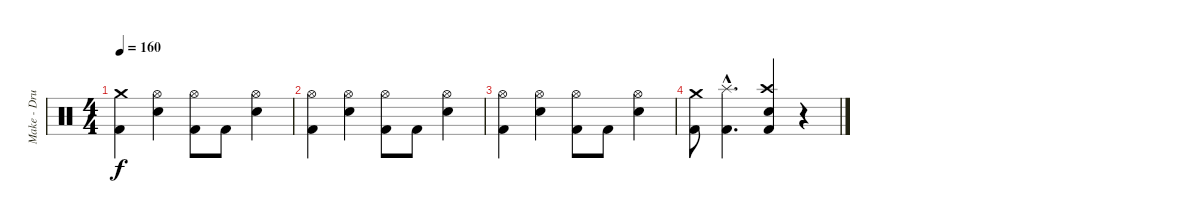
\track ("Make - Drums" "Make - Dru") {instrument percussion}
\staff {score}
\articulation defaults
\ts (4 4)
\tempo 160
\clef neutral
\ks c
("Kick (hit) 2" "Crash medium (hit)").4{dy f} ("Snare (hit) 2" "Hi-Hat (open)").4 ("Kick (hit) 2" "Hi-Hat (open)").8 "Kick (hit) 2".8 ("Snare (hit) 2" "Hi-Hat (open)").4 |
("Kick (hit) 2" "Hi-Hat (open)").4 ("Snare (hit) 2" "Hi-Hat (open)").4 ("Kick (hit) 2" "Hi-Hat (open)").8 "Kick (hit) 2".8 ("Snare (hit) 2" "Hi-Hat (open)").4 |
("Kick (hit) 2" "Hi-Hat (open)").4 ("Snare (hit) 2" "Hi-Hat (open)").4 ("Kick (hit) 2" "Hi-Hat (open)").8 "Kick (hit) 2".8 ("Snare (hit) 2" "Hi-Hat (open)").4 |
("Kick (hit) 2" "Crash medium (hit)").8 ("Kick (hit) 2"{hac} "Splash (hit)"{hac}).4{d} ("Crash high (hit)" "Kick (hit) 2" "Electric Snare (hit)").4 r.4
